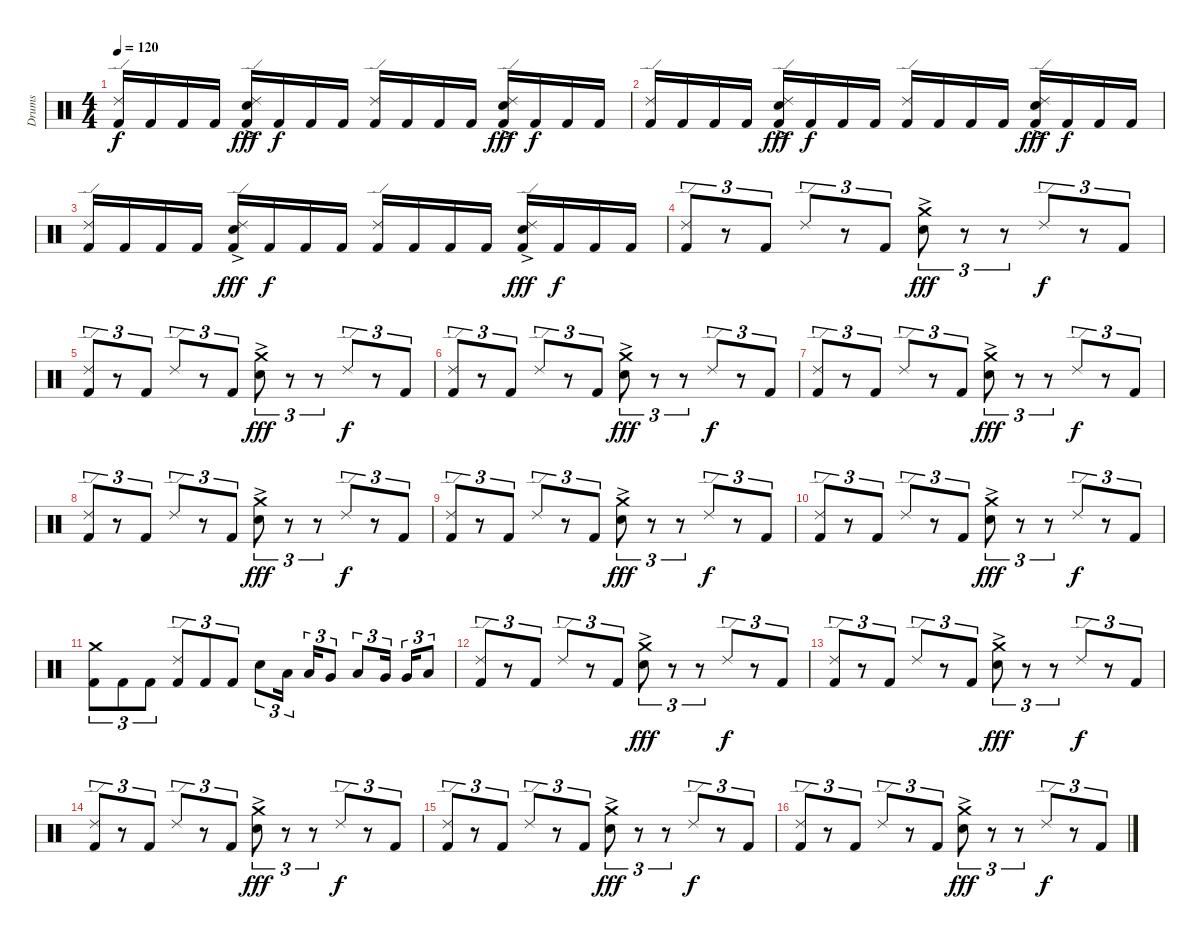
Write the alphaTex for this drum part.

\track ("Drums" "Drums") {instrument percussion}
\staff {score}
\articulation defaults
\ts (4 4)
\tempo 120
\clef neutral
\ks c
("Ride (edge) 2" "Kick (hit) 2").16{dy f} "Kick (hit) 2".16 "Kick (hit) 2".16 "Kick (hit) 2".16 ("Ride (edge) 2" "Electric Snare (hit)"{ac} "Kick (hit) 2").16{dy fff} "Kick (hit) 2".16{dy f} "Kick (hit) 2".16 "Kick (hit) 2".16 ("Ride (edge) 2" "Kick (hit) 2").16 "Kick (hit) 2".16 "Kick (hit) 2".16 "Kick (hit) 2".16 ("Ride (edge) 2" "Electric Snare (hit)"{ac} "Kick (hit) 2").16{dy fff} "Kick (hit) 2".16{dy f} "Kick (hit) 2".16 "Kick (hit) 2".16 |
("Ride (edge) 2" "Kick (hit) 2").16 "Kick (hit) 2".16 "Kick (hit) 2".16 "Kick (hit) 2".16 ("Ride (edge) 2" "Electric Snare (hit)"{ac} "Kick (hit) 2").16{dy fff} "Kick (hit) 2".16{dy f} "Kick (hit) 2".16 "Kick (hit) 2".16 ("Ride (edge) 2" "Kick (hit) 2").16 "Kick (hit) 2".16 "Kick (hit) 2".16 "Kick (hit) 2".16 ("Ride (edge) 2" "Electric Snare (hit)"{ac} "Kick (hit) 2").16{dy fff} "Kick (hit) 2".16{dy f} "Kick (hit) 2".16 "Kick (hit) 2".16 |
("Ride (edge) 2" "Kick (hit) 2").16 "Kick (hit) 2".16 "Kick (hit) 2".16 "Kick (hit) 2".16 ("Ride (edge) 2" "Electric Snare (hit)"{ac} "Kick (hit) 2").16{dy fff} "Kick (hit) 2".16{dy f} "Kick (hit) 2".16 "Kick (hit) 2".16 ("Ride (edge) 2" "Kick (hit) 2").16 "Kick (hit) 2".16 "Kick (hit) 2".16 "Kick (hit) 2".16 ("Ride (edge) 2" "Electric Snare (hit)"{ac} "Kick (hit) 2").16{dy fff} "Kick (hit) 2".16{dy f} "Kick (hit) 2".16 "Kick (hit) 2".16 |
("Ride (edge) 2" "Kick (hit) 2").8{tu (3 2)} r.8{tu (3 2)} "Kick (hit) 2".8{tu (3 2)} "Ride (edge) 2".8{tu (3 2)} r.8{tu (3 2)} "Kick (hit) 2".8{tu (3 2)} ("Crash medium (hit)" "Electric Snare (hit)"{ac}).8{tu (3 2) dy fff} r.8{tu (3 2)} r.8{tu (3 2)} "Ride (edge) 2".8{tu (3 2) dy f} r.8{tu (3 2)} "Kick (hit) 2".8{tu (3 2)} |
("Ride (edge) 2" "Kick (hit) 2").8{tu (3 2)} r.8{tu (3 2)} "Kick (hit) 2".8{tu (3 2)} "Ride (edge) 2".8{tu (3 2)} r.8{tu (3 2)} "Kick (hit) 2".8{tu (3 2)} ("Crash medium (hit)" "Electric Snare (hit)"{ac}).8{tu (3 2) dy fff} r.8{tu (3 2)} r.8{tu (3 2)} "Ride (edge) 2".8{tu (3 2) dy f} r.8{tu (3 2)} "Kick (hit) 2".8{tu (3 2)} |
("Ride (edge) 2" "Kick (hit) 2").8{tu (3 2)} r.8{tu (3 2)} "Kick (hit) 2".8{tu (3 2)} "Ride (edge) 2".8{tu (3 2)} r.8{tu (3 2)} "Kick (hit) 2".8{tu (3 2)} ("Crash medium (hit)" "Electric Snare (hit)"{ac}).8{tu (3 2) dy fff} r.8{tu (3 2)} r.8{tu (3 2)} "Ride (edge) 2".8{tu (3 2) dy f} r.8{tu (3 2)} "Kick (hit) 2".8{tu (3 2)} |
("Ride (edge) 2" "Kick (hit) 2").8{tu (3 2)} r.8{tu (3 2)} "Kick (hit) 2".8{tu (3 2)} "Ride (edge) 2".8{tu (3 2)} r.8{tu (3 2)} "Kick (hit) 2".8{tu (3 2)} ("Crash medium (hit)" "Electric Snare (hit)"{ac}).8{tu (3 2) dy fff} r.8{tu (3 2)} r.8{tu (3 2)} "Ride (edge) 2".8{tu (3 2) dy f} r.8{tu (3 2)} "Kick (hit) 2".8{tu (3 2)} |
("Ride (edge) 2" "Kick (hit) 2").8{tu (3 2)} r.8{tu (3 2)} "Kick (hit) 2".8{tu (3 2)} "Ride (edge) 2".8{tu (3 2)} r.8{tu (3 2)} "Kick (hit) 2".8{tu (3 2)} ("Crash medium (hit)" "Electric Snare (hit)"{ac}).8{tu (3 2) dy fff} r.8{tu (3 2)} r.8{tu (3 2)} "Ride (edge) 2".8{tu (3 2) dy f} r.8{tu (3 2)} "Kick (hit) 2".8{tu (3 2)} |
("Ride (edge) 2" "Kick (hit) 2").8{tu (3 2)} r.8{tu (3 2)} "Kick (hit) 2".8{tu (3 2)} "Ride (edge) 2".8{tu (3 2)} r.8{tu (3 2)} "Kick (hit) 2".8{tu (3 2)} ("Crash medium (hit)" "Electric Snare (hit)"{ac}).8{tu (3 2) dy fff} r.8{tu (3 2)} r.8{tu (3 2)} "Ride (edge) 2".8{tu (3 2) dy f} r.8{tu (3 2)} "Kick (hit) 2".8{tu (3 2)} |
("Ride (edge) 2" "Kick (hit) 2").8{tu (3 2)} r.8{tu (3 2)} "Kick (hit) 2".8{tu (3 2)} "Ride (edge) 2".8{tu (3 2)} r.8{tu (3 2)} "Kick (hit) 2".8{tu (3 2)} ("Crash medium (hit)" "Electric Snare (hit)"{ac}).8{tu (3 2) dy fff} r.8{tu (3 2)} r.8{tu (3 2)} "Ride (edge) 2".8{tu (3 2) dy f} r.8{tu (3 2)} "Kick (hit) 2".8{tu (3 2)} |
("Crash medium (hit)" "Kick (hit) 2").8{tu (3 2)} "Kick (hit) 2".8{tu (3 2)} "Kick (hit) 2".8{tu (3 2)} ("Ride (edge) 2" "Kick (hit) 2").8{tu (3 2)} "Kick (hit) 2".8{tu (3 2)} "Kick (hit) 2".8{tu (3 2)} "Electric Snare (hit)".8{tu (3 2)} "Low Tom (hit)".16{tu (3 2)} "Low Tom (hit)".16{tu (3 2)} "Very Low Tom (hit)".8{tu (3 2)} "Low Tom (hit)".8{tu (3 2)} "Very Low Tom (hit)".16{tu (3 2)} "Very Low Tom (hit)".16{tu (3 2)} "Low Floor Tom (hit)".8{tu (3 2)} |
("Ride (edge) 2" "Kick (hit) 2").8{tu (3 2)} r.8{tu (3 2)} "Kick (hit) 2".8{tu (3 2)} "Ride (edge) 2".8{tu (3 2)} r.8{tu (3 2)} "Kick (hit) 2".8{tu (3 2)} ("Crash medium (hit)" "Electric Snare (hit)"{ac}).8{tu (3 2) dy fff} r.8{tu (3 2)} r.8{tu (3 2)} "Ride (edge) 2".8{tu (3 2) dy f} r.8{tu (3 2)} "Kick (hit) 2".8{tu (3 2)} |
("Ride (edge) 2" "Kick (hit) 2").8{tu (3 2)} r.8{tu (3 2)} "Kick (hit) 2".8{tu (3 2)} "Ride (edge) 2".8{tu (3 2)} r.8{tu (3 2)} "Kick (hit) 2".8{tu (3 2)} ("Crash medium (hit)" "Electric Snare (hit)"{ac}).8{tu (3 2) dy fff} r.8{tu (3 2)} r.8{tu (3 2)} "Ride (edge) 2".8{tu (3 2) dy f} r.8{tu (3 2)} "Kick (hit) 2".8{tu (3 2)} |
("Ride (edge) 2" "Kick (hit) 2").8{tu (3 2)} r.8{tu (3 2)} "Kick (hit) 2".8{tu (3 2)} "Ride (edge) 2".8{tu (3 2)} r.8{tu (3 2)} "Kick (hit) 2".8{tu (3 2)} ("Crash medium (hit)" "Electric Snare (hit)"{ac}).8{tu (3 2) dy fff} r.8{tu (3 2)} r.8{tu (3 2)} "Ride (edge) 2".8{tu (3 2) dy f} r.8{tu (3 2)} "Kick (hit) 2".8{tu (3 2)} |
("Ride (edge) 2" "Kick (hit) 2").8{tu (3 2)} r.8{tu (3 2)} "Kick (hit) 2".8{tu (3 2)} "Ride (edge) 2".8{tu (3 2)} r.8{tu (3 2)} "Kick (hit) 2".8{tu (3 2)} ("Crash medium (hit)" "Electric Snare (hit)"{ac}).8{tu (3 2) dy fff} r.8{tu (3 2)} r.8{tu (3 2)} "Ride (edge) 2".8{tu (3 2) dy f} r.8{tu (3 2)} "Kick (hit) 2".8{tu (3 2)} |
("Ride (edge) 2" "Kick (hit) 2").8{tu (3 2)} r.8{tu (3 2)} "Kick (hit) 2".8{tu (3 2)} "Ride (edge) 2".8{tu (3 2)} r.8{tu (3 2)} "Kick (hit) 2".8{tu (3 2)} ("Crash medium (hit)" "Electric Snare (hit)"{ac}).8{tu (3 2) dy fff} r.8{tu (3 2)} r.8{tu (3 2)} "Ride (edge) 2".8{tu (3 2) dy f} r.8{tu (3 2)} "Kick (hit) 2".8{tu (3 2)}
